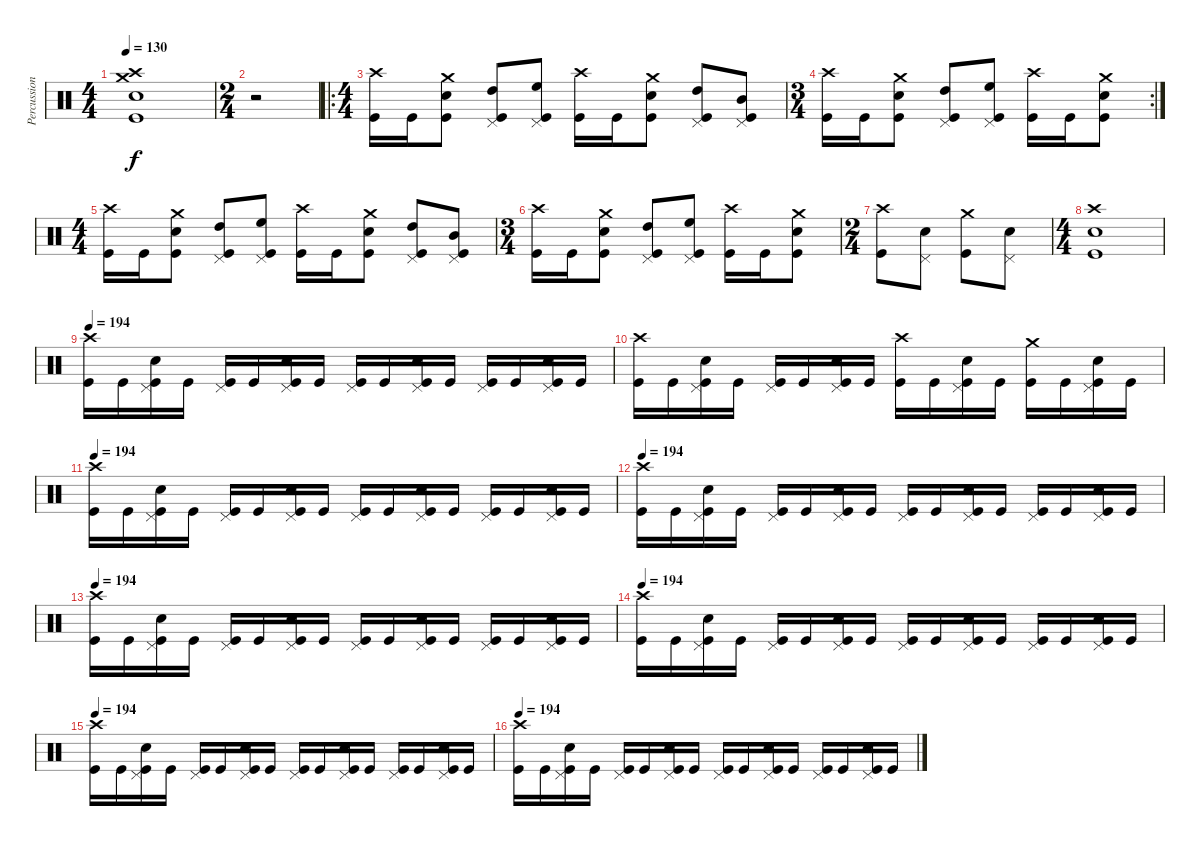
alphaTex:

\track ("Percussion" "Percussion") {instrument percussion}
\staff {score}
\articulation defaults
\ts (4 4)
\tempo 130
\clef neutral
\ks c
("Kick (hit)" "Snare (hit) 2" "Crash high (hit)" "Crash medium (hit)").1{dy f} |
\ts (2 4)
r.2 |
\ro
\ts (4 4)
("Kick (hit)" "Crash high (hit)").16 "Kick (hit)".16 ("Snare (hit) 2" "Kick (hit)" "Crash medium (hit)").8 ("Kick (hit)" "High Tom (hit)" "Pedal Hi-Hat (hit)").8 ("Kick (hit)" "High Floor Tom (hit)" "Pedal Hi-Hat (hit)").8 ("Kick (hit)" "Crash high (hit)").16 "Kick (hit)".16 ("Snare (hit) 2" "Kick (hit)" "Crash medium (hit)").8 ("Kick (hit)" "High Tom (hit)" "Pedal Hi-Hat (hit)").8 ("Kick (hit)" "Mid Tom (hit)" "Pedal Hi-Hat (hit)").8 |
\rc 2
\ts (3 4)
("Kick (hit)" "Crash high (hit)").16 "Kick (hit)".16 ("Snare (hit) 2" "Kick (hit)" "Crash medium (hit)").8 ("Kick (hit)" "High Tom (hit)" "Pedal Hi-Hat (hit)").8 ("Kick (hit)" "High Floor Tom (hit)" "Pedal Hi-Hat (hit)").8 ("Kick (hit)" "Crash high (hit)").16 "Kick (hit)".16 ("Snare (hit) 2" "Kick (hit)" "Crash medium (hit)").8 |
\ts (4 4)
("Kick (hit)" "Crash high (hit)").16 "Kick (hit)".16 ("Snare (hit) 2" "Kick (hit)" "Crash medium (hit)").8 ("Kick (hit)" "High Tom (hit)" "Pedal Hi-Hat (hit)").8 ("Kick (hit)" "High Floor Tom (hit)" "Pedal Hi-Hat (hit)").8 ("Kick (hit)" "Crash high (hit)").16 "Kick (hit)".16 ("Snare (hit) 2" "Kick (hit)" "Crash medium (hit)").8 ("Kick (hit)" "High Tom (hit)" "Pedal Hi-Hat (hit)").8 ("Kick (hit)" "Mid Tom (hit)" "Pedal Hi-Hat (hit)").8 |
\ts (3 4)
("Kick (hit)" "Crash high (hit)").16 "Kick (hit)".16 ("Snare (hit) 2" "Kick (hit)" "Crash medium (hit)").8 ("Kick (hit)" "High Tom (hit)" "Pedal Hi-Hat (hit)").8 ("Kick (hit)" "High Floor Tom (hit)" "Pedal Hi-Hat (hit)").8 ("Kick (hit)" "Crash high (hit)").16 "Kick (hit)".16 ("Snare (hit) 2" "Kick (hit)" "Crash medium (hit)").8 |
\ts (2 4)
("Kick (hit)" "Crash high (hit)").8 ("Snare (hit) 2" "Pedal Hi-Hat (hit)").8 ("Kick (hit)" "Crash medium (hit)").8 ("Snare (hit) 2" "Pedal Hi-Hat (hit)").8 |
\ts (4 4)
("Crash high (hit)" "Snare (hit) 2" "Kick (hit)").1 |
\tempo 194
("Crash high (hit)" "Kick (hit)").16 "Kick (hit)".16 ("Pedal Hi-Hat (hit)" "Snare (hit) 2" "Kick (hit)").16 "Kick (hit)".16 ("Pedal Hi-Hat (hit)" "Kick (hit)").16 "Kick (hit)".16 ("Pedal Hi-Hat (hit)" "Snare (hit) 2" "Kick (hit)").16 "Kick (hit)".16 ("Pedal Hi-Hat (hit)" "Kick (hit)").16 "Kick (hit)".16 ("Pedal Hi-Hat (hit)" "Snare (hit) 2" "Kick (hit)").16 "Kick (hit)".16 ("Pedal Hi-Hat (hit)" "Kick (hit)").16 "Kick (hit)".16 ("Pedal Hi-Hat (hit)" "Snare (hit) 2" "Kick (hit)").16 "Kick (hit)".16 |
("Crash high (hit)" "Kick (hit)").16 "Kick (hit)".16 ("Pedal Hi-Hat (hit)" "Snare (hit) 2" "Kick (hit)").16 "Kick (hit)".16 ("Pedal Hi-Hat (hit)" "Kick (hit)").16 "Kick (hit)".16 ("Pedal Hi-Hat (hit)" "Snare (hit) 2" "Kick (hit)").16 "Kick (hit)".16 ("Crash high (hit)" "Kick (hit)").16 "Kick (hit)".16 ("Pedal Hi-Hat (hit)" "Snare (hit) 2" "Kick (hit)").16 "Kick (hit)".16 ("Crash medium (hit)" "Kick (hit)").16 "Kick (hit)".16 ("Pedal Hi-Hat (hit)" "Snare (hit) 2" "Kick (hit)").16 "Kick (hit)".16 |
\tempo 194
("Crash high (hit)" "Kick (hit)").16 "Kick (hit)".16 ("Pedal Hi-Hat (hit)" "Snare (hit) 2" "Kick (hit)").16 "Kick (hit)".16 ("Pedal Hi-Hat (hit)" "Kick (hit)").16 "Kick (hit)".16 ("Pedal Hi-Hat (hit)" "Snare (hit) 2" "Kick (hit)").16 "Kick (hit)".16 ("Pedal Hi-Hat (hit)" "Kick (hit)").16 "Kick (hit)".16 ("Pedal Hi-Hat (hit)" "Snare (hit) 2" "Kick (hit)").16 "Kick (hit)".16 ("Pedal Hi-Hat (hit)" "Kick (hit)").16 "Kick (hit)".16 ("Pedal Hi-Hat (hit)" "Snare (hit) 2" "Kick (hit)").16 "Kick (hit)".16 |
\tempo 194
("Crash high (hit)" "Kick (hit)").16 "Kick (hit)".16 ("Pedal Hi-Hat (hit)" "Snare (hit) 2" "Kick (hit)").16 "Kick (hit)".16 ("Pedal Hi-Hat (hit)" "Kick (hit)").16 "Kick (hit)".16 ("Pedal Hi-Hat (hit)" "Snare (hit) 2" "Kick (hit)").16 "Kick (hit)".16 ("Pedal Hi-Hat (hit)" "Kick (hit)").16 "Kick (hit)".16 ("Pedal Hi-Hat (hit)" "Snare (hit) 2" "Kick (hit)").16 "Kick (hit)".16 ("Pedal Hi-Hat (hit)" "Kick (hit)").16 "Kick (hit)".16 ("Pedal Hi-Hat (hit)" "Snare (hit) 2" "Kick (hit)").16 "Kick (hit)".16 |
\tempo 194
("Crash high (hit)" "Kick (hit)").16 "Kick (hit)".16 ("Pedal Hi-Hat (hit)" "Snare (hit) 2" "Kick (hit)").16 "Kick (hit)".16 ("Pedal Hi-Hat (hit)" "Kick (hit)").16 "Kick (hit)".16 ("Pedal Hi-Hat (hit)" "Snare (hit) 2" "Kick (hit)").16 "Kick (hit)".16 ("Pedal Hi-Hat (hit)" "Kick (hit)").16 "Kick (hit)".16 ("Pedal Hi-Hat (hit)" "Snare (hit) 2" "Kick (hit)").16 "Kick (hit)".16 ("Pedal Hi-Hat (hit)" "Kick (hit)").16 "Kick (hit)".16 ("Pedal Hi-Hat (hit)" "Snare (hit) 2" "Kick (hit)").16 "Kick (hit)".16 |
\tempo 194
("Crash high (hit)" "Kick (hit)").16 "Kick (hit)".16 ("Pedal Hi-Hat (hit)" "Snare (hit) 2" "Kick (hit)").16 "Kick (hit)".16 ("Pedal Hi-Hat (hit)" "Kick (hit)").16 "Kick (hit)".16 ("Pedal Hi-Hat (hit)" "Snare (hit) 2" "Kick (hit)").16 "Kick (hit)".16 ("Pedal Hi-Hat (hit)" "Kick (hit)").16 "Kick (hit)".16 ("Pedal Hi-Hat (hit)" "Snare (hit) 2" "Kick (hit)").16 "Kick (hit)".16 ("Pedal Hi-Hat (hit)" "Kick (hit)").16 "Kick (hit)".16 ("Pedal Hi-Hat (hit)" "Snare (hit) 2" "Kick (hit)").16 "Kick (hit)".16 |
\tempo 194
("Crash high (hit)" "Kick (hit)").16 "Kick (hit)".16 ("Pedal Hi-Hat (hit)" "Snare (hit) 2" "Kick (hit)").16 "Kick (hit)".16 ("Pedal Hi-Hat (hit)" "Kick (hit)").16 "Kick (hit)".16 ("Pedal Hi-Hat (hit)" "Snare (hit) 2" "Kick (hit)").16 "Kick (hit)".16 ("Pedal Hi-Hat (hit)" "Kick (hit)").16 "Kick (hit)".16 ("Pedal Hi-Hat (hit)" "Snare (hit) 2" "Kick (hit)").16 "Kick (hit)".16 ("Pedal Hi-Hat (hit)" "Kick (hit)").16 "Kick (hit)".16 ("Pedal Hi-Hat (hit)" "Snare (hit) 2" "Kick (hit)").16 "Kick (hit)".16 |
\tempo 194
("Crash high (hit)" "Kick (hit)").16 "Kick (hit)".16 ("Pedal Hi-Hat (hit)" "Snare (hit) 2" "Kick (hit)").16 "Kick (hit)".16 ("Pedal Hi-Hat (hit)" "Kick (hit)").16 "Kick (hit)".16 ("Pedal Hi-Hat (hit)" "Snare (hit) 2" "Kick (hit)").16 "Kick (hit)".16 ("Pedal Hi-Hat (hit)" "Kick (hit)").16 "Kick (hit)".16 ("Pedal Hi-Hat (hit)" "Snare (hit) 2" "Kick (hit)").16 "Kick (hit)".16 ("Pedal Hi-Hat (hit)" "Kick (hit)").16 "Kick (hit)".16 ("Pedal Hi-Hat (hit)" "Snare (hit) 2" "Kick (hit)").16 "Kick (hit)".16
